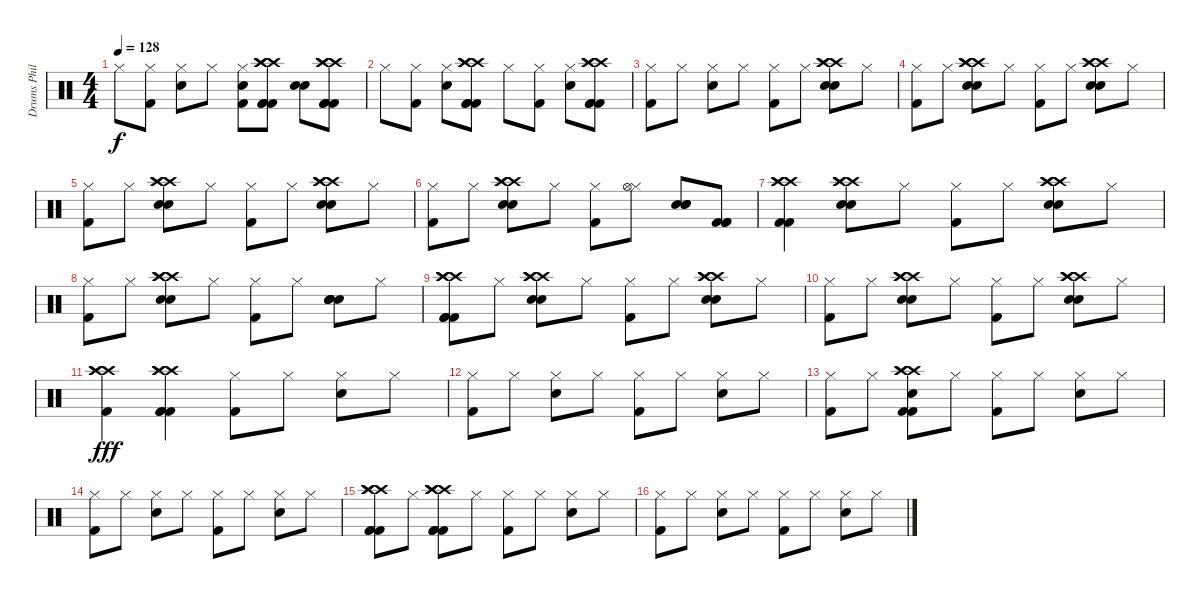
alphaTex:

\track ("Drums Phil Rudd" "Drums Phil") {instrument percussion}
\staff {score}
\articulation defaults
\ts (4 4)
\tempo 128
\clef neutral
\ks c "Hi-Hat (closed)".8{dy f}
("Hi-Hat (closed)" "Kick (hit) 2").8 ("Hi-Hat (closed)" "Electric Snare (hit)").8 "Hi-Hat (closed)".8 ("Hi-Hat (closed)" "Electric Snare (hit)" "Kick (hit) 2").8 ("Crash high (hit)" "Crash high (hit)" "Crash high (hit)" "Kick (hit) 2" "Kick (hit) 2" "Kick (hit) 2").8 ("Electric Snare (hit)" "Electric Snare (hit)").8 ("Crash high (hit)" "Crash high (hit)" "Crash high (hit)" "Kick (hit) 2" "Kick (hit) 2" "Kick (hit) 2").8 |
"Hi-Hat (closed)".8 ("Hi-Hat (closed)" "Kick (hit) 2").8 ("Hi-Hat (closed)" "Electric Snare (hit)").8 ("Crash high (hit)" "Crash high (hit)" "Crash high (hit)" "Kick (hit) 2" "Kick (hit) 2" "Kick (hit) 2").8 "Hi-Hat (closed)".8 ("Hi-Hat (closed)" "Kick (hit) 2").8 ("Hi-Hat (closed)" "Electric Snare (hit)").8 ("Crash high (hit)" "Crash high (hit)" "Crash high (hit)" "Kick (hit) 2" "Kick (hit) 2" "Kick (hit) 2").8 |
("Hi-Hat (closed)" "Kick (hit) 2").8 "Hi-Hat (closed)".8 ("Hi-Hat (closed)" "Electric Snare (hit)").8 "Hi-Hat (closed)".8 ("Hi-Hat (closed)" "Kick (hit) 2").8 "Hi-Hat (closed)".8 ("Crash high (hit)" "Crash high (hit)" "Crash high (hit)" "Electric Snare (hit)" "Electric Snare (hit)").8 "Hi-Hat (closed)".8 |
("Hi-Hat (closed)" "Kick (hit) 2").8 "Hi-Hat (closed)".8 ("Crash high (hit)" "Crash high (hit)" "Crash high (hit)" "Electric Snare (hit)" "Electric Snare (hit)").8 "Hi-Hat (closed)".8 ("Hi-Hat (closed)" "Kick (hit) 2").8 "Hi-Hat (closed)".8 ("Crash high (hit)" "Crash high (hit)" "Crash high (hit)" "Electric Snare (hit)" "Electric Snare (hit)").8 "Hi-Hat (closed)".8 |
("Hi-Hat (closed)" "Kick (hit) 2").8 "Hi-Hat (closed)".8 ("Crash high (hit)" "Crash high (hit)" "Crash high (hit)" "Electric Snare (hit)" "Electric Snare (hit)").8 "Hi-Hat (closed)".8 ("Hi-Hat (closed)" "Kick (hit) 2").8 "Hi-Hat (closed)".8 ("Crash high (hit)" "Crash high (hit)" "Crash high (hit)" "Electric Snare (hit)" "Electric Snare (hit)").8 "Hi-Hat (closed)".8 |
("Hi-Hat (closed)" "Kick (hit) 2").8 "Hi-Hat (closed)".8 ("Crash high (hit)" "Crash high (hit)" "Crash high (hit)" "Electric Snare (hit)" "Electric Snare (hit)").8 "Hi-Hat (closed)".8 ("Hi-Hat (closed)" "Kick (hit) 2").8 ("Hi-Hat (closed)" "Hi-Hat (open)").8 ("Electric Snare (hit)" "Electric Snare (hit)" "Electric Snare (hit)").8 ("Kick (hit) 2" "Kick (hit) 2" "Kick (hit) 2").8 |
("Crash high (hit)" "Crash high (hit)" "Crash high (hit)" "Kick (hit) 2" "Kick (hit) 2").4 ("Crash high (hit)" "Crash high (hit)" "Crash high (hit)" "Electric Snare (hit)" "Electric Snare (hit)").8 "Hi-Hat (closed)".8 ("Hi-Hat (closed)" "Kick (hit) 2").8 "Hi-Hat (closed)".8 ("Crash high (hit)" "Crash high (hit)" "Crash high (hit)" "Electric Snare (hit)" "Electric Snare (hit)").8 "Hi-Hat (closed)".8 |
("Hi-Hat (closed)" "Kick (hit) 2").8 "Hi-Hat (closed)".8 ("Crash high (hit)" "Crash high (hit)" "Crash high (hit)" "Electric Snare (hit)" "Electric Snare (hit)").8 "Hi-Hat (closed)".8 ("Hi-Hat (closed)" "Kick (hit) 2").8 "Hi-Hat (closed)".8 ("Electric Snare (hit)" "Electric Snare (hit)" "Electric Snare (hit)" "Electric Snare (hit)").8 "Hi-Hat (closed)".8 |
("Crash high (hit)" "Crash high (hit)" "Crash high (hit)" "Kick (hit) 2" "Kick (hit) 2" "Kick (hit) 2").8 "Hi-Hat (closed)".8 ("Crash high (hit)" "Crash high (hit)" "Crash high (hit)" "Electric Snare (hit)" "Electric Snare (hit)").8 "Hi-Hat (closed)".8 ("Hi-Hat (closed)" "Kick (hit) 2").8 "Hi-Hat (closed)".8 ("Crash high (hit)" "Crash high (hit)" "Crash high (hit)" "Electric Snare (hit)" "Electric Snare (hit)").8 "Hi-Hat (closed)".8 |
("Hi-Hat (closed)" "Kick (hit) 2").8 "Hi-Hat (closed)".8 ("Crash high (hit)" "Crash high (hit)" "Crash high (hit)" "Electric Snare (hit)" "Electric Snare (hit)").8 "Hi-Hat (closed)".8 ("Hi-Hat (closed)" "Kick (hit) 2").8 "Hi-Hat (closed)".8 ("Crash high (hit)" "Crash high (hit)" "Crash high (hit)" "Electric Snare (hit)" "Electric Snare (hit)").8 "Hi-Hat (closed)".8 |
("Crash high (hit)" "Crash high (hit)" "Crash high (hit)" "Kick (hit) 2").4{dy fff} ("Crash high (hit)" "Crash high (hit)" "Crash high (hit)" "Kick (hit) 2" "Kick (hit) 2" "Kick (hit) 2").4 ("Hi-Hat (closed)" "Kick (hit) 2").8 "Hi-Hat (closed)".8 ("Hi-Hat (closed)" "Electric Snare (hit)").8 "Hi-Hat (closed)".8 |
("Hi-Hat (closed)" "Kick (hit) 2").8 "Hi-Hat (closed)".8 ("Hi-Hat (closed)" "Electric Snare (hit)").8 "Hi-Hat (closed)".8 ("Hi-Hat (closed)" "Kick (hit) 2").8 "Hi-Hat (closed)".8 ("Hi-Hat (closed)" "Electric Snare (hit)").8 "Hi-Hat (closed)".8 |
("Hi-Hat (closed)" "Kick (hit) 2").8 "Hi-Hat (closed)".8 ("Crash high (hit)" "Crash high (hit)" "Crash high (hit)" "Electric Snare (hit)" "Kick (hit) 2" "Kick (hit) 2").8 "Hi-Hat (closed)".8 ("Hi-Hat (closed)" "Kick (hit) 2").8 "Hi-Hat (closed)".8 ("Hi-Hat (closed)" "Electric Snare (hit)").8 "Hi-Hat (closed)".8 |
("Hi-Hat (closed)" "Kick (hit) 2").8 "Hi-Hat (closed)".8 ("Hi-Hat (closed)" "Electric Snare (hit)").8 "Hi-Hat (closed)".8 ("Hi-Hat (closed)" "Kick (hit) 2").8 "Hi-Hat (closed)".8 ("Hi-Hat (closed)" "Electric Snare (hit)").8 "Hi-Hat (closed)".8 |
("Crash high (hit)" "Crash high (hit)" "Crash high (hit)" "Kick (hit) 2" "Kick (hit) 2" "Kick (hit) 2").8 "Hi-Hat (closed)".8 ("Crash high (hit)" "Crash high (hit)" "Crash high (hit)" "Kick (hit) 2" "Kick (hit) 2" "Kick (hit) 2").8 "Hi-Hat (closed)".8 ("Hi-Hat (closed)" "Kick (hit) 2").8 "Hi-Hat (closed)".8 ("Hi-Hat (closed)" "Electric Snare (hit)").8 "Hi-Hat (closed)".8 |
("Hi-Hat (closed)" "Kick (hit) 2").8 "Hi-Hat (closed)".8 ("Hi-Hat (closed)" "Electric Snare (hit)").8 "Hi-Hat (closed)".8 ("Hi-Hat (closed)" "Kick (hit) 2").8 "Hi-Hat (closed)".8 ("Hi-Hat (closed)" "Electric Snare (hit)").8 "Hi-Hat (closed)".8
